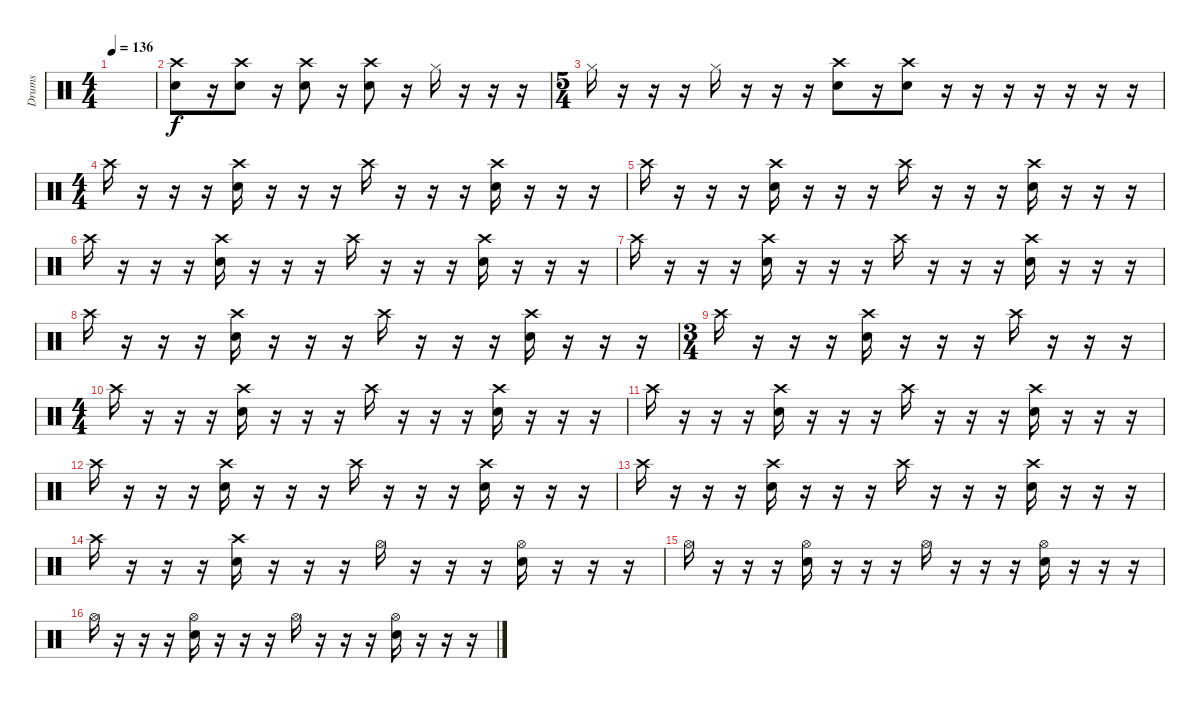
\track ("Drums" "Drums") {instrument percussion}
\staff {score}
\articulation defaults
\ts (4 4)
\tempo 136
\clef neutral
\ks c
|
("Crash high (hit)" "Electric Snare (hit)").8 r.16 ("Crash high (hit)" "Electric Snare (hit)").8 r.16 ("Crash high (hit)" "Electric Snare (hit)").8 r.16 ("Crash high (hit)" "Electric Snare (hit)").8 r.16 "Hi-Hat (closed)".16 r.16 r.16 r.16 |
\ts (5 4)
"Hi-Hat (closed)".16 r.16 r.16 r.16 "Hi-Hat (closed)".16 r.16 r.16 r.16 ("Crash high (hit)" "Electric Snare (hit)").8 r.16 ("Crash high (hit)" "Electric Snare (hit)").8 r.16 r.16 r.16 r.16 r.16 r.16 r.16 |
\ts (4 4)
"Crash high (hit)".16 r.16 r.16 r.16 ("Crash high (hit)" "Electric Snare (hit)").16 r.16 r.16 r.16 "Crash high (hit)".16 r.16 r.16 r.16 ("Crash high (hit)" "Electric Snare (hit)").16 r.16 r.16 r.16 |
"Crash high (hit)".16 r.16 r.16 r.16 ("Crash high (hit)" "Electric Snare (hit)").16 r.16 r.16 r.16 "Crash high (hit)".16 r.16 r.16 r.16 ("Crash high (hit)" "Electric Snare (hit)").16 r.16 r.16 r.16 |
"Crash high (hit)".16 r.16 r.16 r.16 ("Crash high (hit)" "Electric Snare (hit)").16 r.16 r.16 r.16 "Crash high (hit)".16 r.16 r.16 r.16 ("Crash high (hit)" "Electric Snare (hit)").16 r.16 r.16 r.16 |
"Crash high (hit)".16 r.16 r.16 r.16 ("Crash high (hit)" "Electric Snare (hit)").16 r.16 r.16 r.16 "Crash high (hit)".16 r.16 r.16 r.16 ("Crash high (hit)" "Electric Snare (hit)").16 r.16 r.16 r.16 |
"Crash high (hit)".16 r.16 r.16 r.16 ("Crash high (hit)" "Electric Snare (hit)").16 r.16 r.16 r.16 "Crash high (hit)".16 r.16 r.16 r.16 ("Crash high (hit)" "Electric Snare (hit)").16 r.16 r.16 r.16 |
\ts (3 4)
"Crash high (hit)".16 r.16 r.16 r.16 ("Crash high (hit)" "Electric Snare (hit)").16 r.16 r.16 r.16 "Crash high (hit)".16 r.16 r.16 r.16 |
\ts (4 4)
"Crash high (hit)".16 r.16 r.16 r.16 ("Crash high (hit)" "Electric Snare (hit)").16 r.16 r.16 r.16 "Crash high (hit)".16 r.16 r.16 r.16 ("Crash high (hit)" "Electric Snare (hit)").16 r.16 r.16 r.16 |
"Crash high (hit)".16 r.16 r.16 r.16 ("Crash high (hit)" "Electric Snare (hit)").16 r.16 r.16 r.16 "Crash high (hit)".16 r.16 r.16 r.16 ("Crash high (hit)" "Electric Snare (hit)").16 r.16 r.16 r.16 |
"Crash high (hit)".16 r.16 r.16 r.16 ("Crash high (hit)" "Electric Snare (hit)").16 r.16 r.16 r.16 "Crash high (hit)".16 r.16 r.16 r.16 ("Crash high (hit)" "Electric Snare (hit)").16 r.16 r.16 r.16 |
"Crash high (hit)".16 r.16 r.16 r.16 ("Crash high (hit)" "Electric Snare (hit)").16 r.16 r.16 r.16 "Crash high (hit)".16 r.16 r.16 r.16 ("Crash high (hit)" "Electric Snare (hit)").16 r.16 r.16 r.16 |
"Crash high (hit)".16 r.16 r.16 r.16 ("Crash high (hit)" "Electric Snare (hit)").16 r.16 r.16 r.16 "Hi-Hat (open)".16 r.16 r.16 r.16 ("Hi-Hat (open)" "Electric Snare (hit)").16 r.16 r.16 r.16 |
"Hi-Hat (open)".16 r.16 r.16 r.16 ("Hi-Hat (open)" "Electric Snare (hit)").16 r.16 r.16 r.16 "Hi-Hat (open)".16 r.16 r.16 r.16 ("Hi-Hat (open)" "Electric Snare (hit)").16 r.16 r.16 r.16 |
"Hi-Hat (open)".16 r.16 r.16 r.16 ("Hi-Hat (open)" "Electric Snare (hit)").16 r.16 r.16 r.16 "Hi-Hat (open)".16 r.16 r.16 r.16 ("Hi-Hat (open)" "Electric Snare (hit)").16 r.16 r.16 r.16
